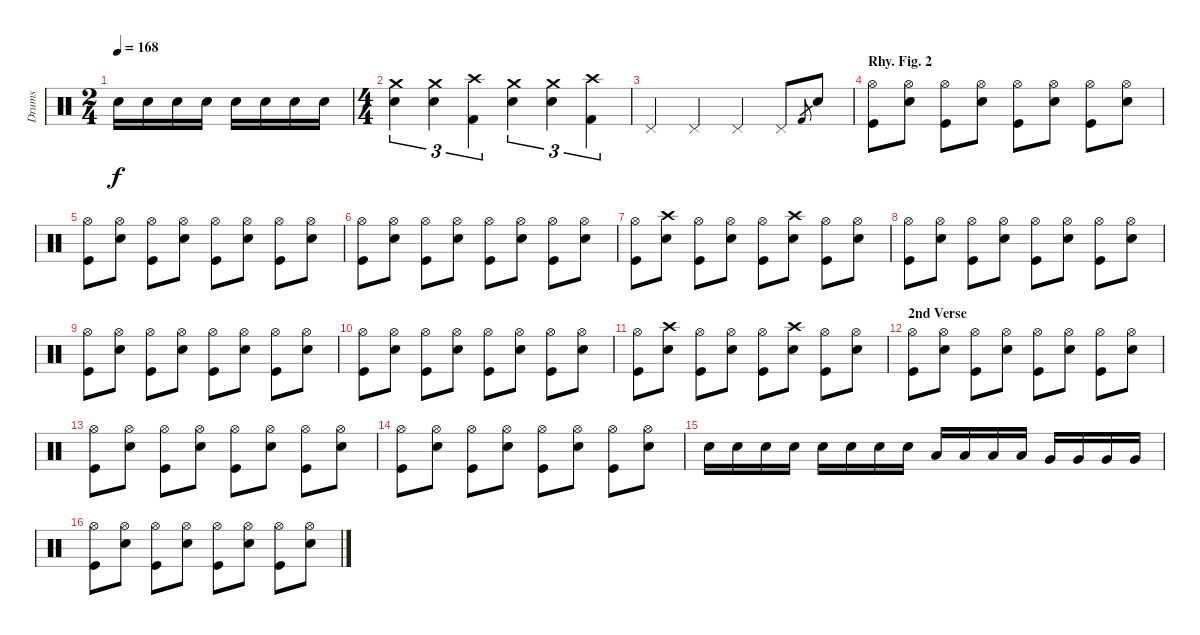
\track ("Drums" "Drums") {instrument percussion}
\staff {score}
\articulation defaults
\ts (2 4)
\tempo 168
\clef neutral
\ks c "Snare (hit) 2".16{dy f} "Snare (hit) 2".16 "Snare (hit) 2".16 "Snare (hit) 2".16 "Snare (hit) 2".16 "Snare (hit) 2".16 "Snare (hit) 2".16 "Snare (hit) 2".16
|
\ts (4 4)
("Crash medium (hit)" "Snare (hit) 2").4{tu (3 2)} ("Crash medium (hit)" "Snare (hit) 2").4{tu (3 2)} ("Crash high (hit)" "Kick (hit) 2").4{tu (3 2)} ("Crash medium (hit)" "Snare (hit) 2").4{tu (3 2)} ("Crash medium (hit)" "Snare (hit) 2").4{tu (3 2)} ("Crash high (hit)" "Kick (hit) 2").4{tu (3 2)} |
"Pedal Hi-Hat (hit)".4 "Pedal Hi-Hat (hit)".4 "Pedal Hi-Hat (hit)".4 "Pedal Hi-Hat (hit)".8 "Kick (hit) 2".8{gr} "Snare (hit) 2".8 |
\section ("" "Rhy. Fig. 2")
("Hi-Hat (open)" "Kick (hit)").8 ("Hi-Hat (open)" "Snare (hit) 2").8 ("Hi-Hat (open)" "Kick (hit)").8 ("Hi-Hat (open)" "Snare (hit) 2").8 ("Hi-Hat (open)" "Kick (hit)").8 ("Hi-Hat (open)" "Snare (hit) 2").8 ("Hi-Hat (open)" "Kick (hit)").8 ("Hi-Hat (open)" "Snare (hit) 2").8 |
("Hi-Hat (open)" "Kick (hit)").8 ("Hi-Hat (open)" "Snare (hit) 2").8 ("Hi-Hat (open)" "Kick (hit)").8 ("Hi-Hat (open)" "Snare (hit) 2").8 ("Hi-Hat (open)" "Kick (hit)").8 ("Hi-Hat (open)" "Snare (hit) 2").8 ("Hi-Hat (open)" "Kick (hit)").8 ("Hi-Hat (open)" "Snare (hit) 2").8 |
("Hi-Hat (open)" "Kick (hit)").8 ("Hi-Hat (open)" "Snare (hit) 2").8 ("Hi-Hat (open)" "Kick (hit)").8 ("Hi-Hat (open)" "Snare (hit) 2").8 ("Hi-Hat (open)" "Kick (hit)").8 ("Hi-Hat (open)" "Snare (hit) 2").8 ("Hi-Hat (open)" "Kick (hit)").8 ("Hi-Hat (open)" "Snare (hit) 2").8 |
("Hi-Hat (open)" "Kick (hit)").8 ("Crash high (hit)" "Snare (hit) 2").8 ("Hi-Hat (open)" "Kick (hit)").8 ("Hi-Hat (open)" "Snare (hit) 2").8 ("Hi-Hat (open)" "Kick (hit)").8 ("Crash high (hit)" "Snare (hit) 2").8 ("Hi-Hat (open)" "Kick (hit)").8 ("Hi-Hat (open)" "Snare (hit) 2").8 |
("Hi-Hat (open)" "Kick (hit)").8 ("Hi-Hat (open)" "Snare (hit) 2").8 ("Hi-Hat (open)" "Kick (hit)").8 ("Hi-Hat (open)" "Snare (hit) 2").8 ("Hi-Hat (open)" "Kick (hit)").8 ("Hi-Hat (open)" "Snare (hit) 2").8 ("Hi-Hat (open)" "Kick (hit)").8 ("Hi-Hat (open)" "Snare (hit) 2").8 |
("Hi-Hat (open)" "Kick (hit)").8 ("Hi-Hat (open)" "Snare (hit) 2").8 ("Hi-Hat (open)" "Kick (hit)").8 ("Hi-Hat (open)" "Snare (hit) 2").8 ("Hi-Hat (open)" "Kick (hit)").8 ("Hi-Hat (open)" "Snare (hit) 2").8 ("Hi-Hat (open)" "Kick (hit)").8 ("Hi-Hat (open)" "Snare (hit) 2").8 |
("Hi-Hat (open)" "Kick (hit)").8 ("Hi-Hat (open)" "Snare (hit) 2").8 ("Hi-Hat (open)" "Kick (hit)").8 ("Hi-Hat (open)" "Snare (hit) 2").8 ("Hi-Hat (open)" "Kick (hit)").8 ("Hi-Hat (open)" "Snare (hit) 2").8 ("Hi-Hat (open)" "Kick (hit)").8 ("Hi-Hat (open)" "Snare (hit) 2").8 |
("Hi-Hat (open)" "Kick (hit)").8 ("Crash high (hit)" "Snare (hit) 2").8 ("Hi-Hat (open)" "Kick (hit)").8 ("Hi-Hat (open)" "Snare (hit) 2").8 ("Hi-Hat (open)" "Kick (hit)").8 ("Crash high (hit)" "Snare (hit) 2").8 ("Hi-Hat (open)" "Kick (hit)").8 ("Hi-Hat (open)" "Snare (hit) 2").8 |
\section ("" "2nd Verse")
("Hi-Hat (open)" "Kick (hit)").8 ("Hi-Hat (open)" "Snare (hit) 2").8 ("Hi-Hat (open)" "Kick (hit)").8 ("Hi-Hat (open)" "Snare (hit) 2").8 ("Hi-Hat (open)" "Kick (hit)").8 ("Hi-Hat (open)" "Snare (hit) 2").8 ("Hi-Hat (open)" "Kick (hit)").8 ("Hi-Hat (open)" "Snare (hit) 2").8 |
("Hi-Hat (open)" "Kick (hit)").8 ("Hi-Hat (open)" "Snare (hit) 2").8 ("Hi-Hat (open)" "Kick (hit)").8 ("Hi-Hat (open)" "Snare (hit) 2").8 ("Hi-Hat (open)" "Kick (hit)").8 ("Hi-Hat (open)" "Snare (hit) 2").8 ("Hi-Hat (open)" "Kick (hit)").8 ("Hi-Hat (open)" "Snare (hit) 2").8 |
("Hi-Hat (open)" "Kick (hit)").8 ("Hi-Hat (open)" "Snare (hit) 2").8 ("Hi-Hat (open)" "Kick (hit)").8 ("Hi-Hat (open)" "Snare (hit) 2").8 ("Hi-Hat (open)" "Kick (hit)").8 ("Hi-Hat (open)" "Snare (hit) 2").8 ("Hi-Hat (open)" "Kick (hit)").8 ("Hi-Hat (open)" "Snare (hit) 2").8 |
"Snare (hit) 2".16 "Snare (hit) 2".16 "Snare (hit) 2".16 "Snare (hit) 2".16 "Snare (hit) 2".16 "Snare (hit) 2".16 "Snare (hit) 2".16 "Snare (hit) 2".16 "Low Tom (hit)".16 "Low Tom (hit)".16 "Low Tom (hit)".16 "Low Tom (hit)".16 "Very Low Tom (hit)".16 "Very Low Tom (hit)".16 "Very Low Tom (hit)".16 "Very Low Tom (hit)".16 |
("Hi-Hat (open)" "Kick (hit)").8 ("Hi-Hat (open)" "Snare (hit) 2").8 ("Hi-Hat (open)" "Kick (hit)").8 ("Hi-Hat (open)" "Snare (hit) 2").8 ("Hi-Hat (open)" "Kick (hit)").8 ("Hi-Hat (open)" "Snare (hit) 2").8 ("Hi-Hat (open)" "Kick (hit)").8 ("Hi-Hat (open)" "Snare (hit) 2").8
